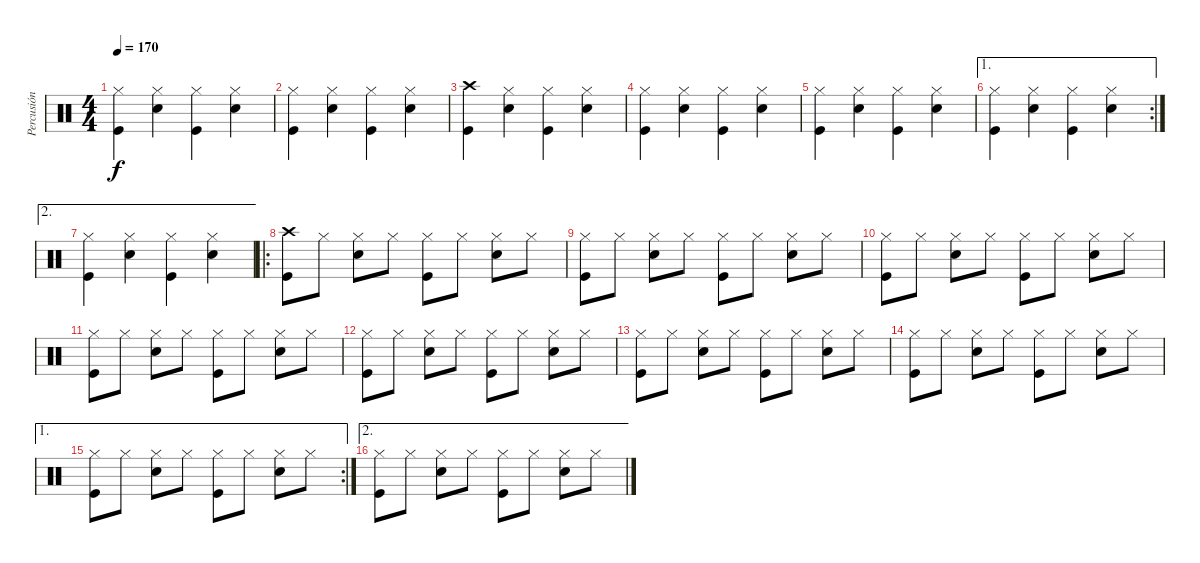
\track ("Percusión" "Percusión") {instrument percussion}
\staff {score}
\articulation defaults
\ts (4 4)
\tempo 170
\clef neutral
\ks c
("Kick (hit)" "Hi-Hat (closed)").4{dy f} ("Snare (hit) 2" "Hi-Hat (closed)").4 ("Kick (hit)" "Hi-Hat (closed)").4 ("Snare (hit) 2" "Hi-Hat (closed)").4 |
("Kick (hit)" "Hi-Hat (closed)").4 ("Snare (hit) 2" "Hi-Hat (closed)").4 ("Kick (hit)" "Hi-Hat (closed)").4 ("Snare (hit) 2" "Hi-Hat (closed)").4 |
("Kick (hit)" "Crash high (hit)").4 ("Snare (hit) 2" "Hi-Hat (closed)").4 ("Kick (hit)" "Hi-Hat (closed)").4 ("Snare (hit) 2" "Hi-Hat (closed)").4 |
("Kick (hit)" "Hi-Hat (closed)").4 ("Snare (hit) 2" "Hi-Hat (closed)").4 ("Kick (hit)" "Hi-Hat (closed)").4 ("Snare (hit) 2" "Hi-Hat (closed)").4 |
("Kick (hit)" "Hi-Hat (closed)").4 ("Snare (hit) 2" "Hi-Hat (closed)").4 ("Kick (hit)" "Hi-Hat (closed)").4 ("Snare (hit) 2" "Hi-Hat (closed)").4 |
\ae 1
\rc 2
("Kick (hit)" "Hi-Hat (closed)").4 ("Snare (hit) 2" "Hi-Hat (closed)").4 ("Kick (hit)" "Hi-Hat (closed)").4 ("Snare (hit) 2" "Hi-Hat (closed)").4 |
\ae 2
("Kick (hit)" "Hi-Hat (closed)").4 ("Snare (hit) 2" "Hi-Hat (closed)").4 ("Kick (hit)" "Hi-Hat (closed)").4 ("Snare (hit) 2" "Hi-Hat (closed)").4 |
\ro
("Kick (hit)" "Crash high (hit)").8 "Hi-Hat (closed)".8 ("Snare (hit) 2" "Hi-Hat (closed)").8 "Hi-Hat (closed)".8 ("Kick (hit)" "Hi-Hat (closed)").8 "Hi-Hat (closed)".8 ("Snare (hit) 2" "Hi-Hat (closed)").8 "Hi-Hat (closed)".8 |
("Kick (hit)" "Hi-Hat (closed)").8 "Hi-Hat (closed)".8 ("Snare (hit) 2" "Hi-Hat (closed)").8 "Hi-Hat (closed)".8 ("Kick (hit)" "Hi-Hat (closed)").8 "Hi-Hat (closed)".8 ("Snare (hit) 2" "Hi-Hat (closed)").8 "Hi-Hat (closed)".8 |
("Kick (hit)" "Hi-Hat (closed)").8 "Hi-Hat (closed)".8 ("Snare (hit) 2" "Hi-Hat (closed)").8 "Hi-Hat (closed)".8 ("Kick (hit)" "Hi-Hat (closed)").8 "Hi-Hat (closed)".8 ("Snare (hit) 2" "Hi-Hat (closed)").8 "Hi-Hat (closed)".8 |
("Kick (hit)" "Hi-Hat (closed)").8 "Hi-Hat (closed)".8 ("Snare (hit) 2" "Hi-Hat (closed)").8 "Hi-Hat (closed)".8 ("Kick (hit)" "Hi-Hat (closed)").8 "Hi-Hat (closed)".8 ("Snare (hit) 2" "Hi-Hat (closed)").8 "Hi-Hat (closed)".8 |
("Kick (hit)" "Hi-Hat (closed)").8 "Hi-Hat (closed)".8 ("Snare (hit) 2" "Hi-Hat (closed)").8 "Hi-Hat (closed)".8 ("Kick (hit)" "Hi-Hat (closed)").8 "Hi-Hat (closed)".8 ("Snare (hit) 2" "Hi-Hat (closed)").8 "Hi-Hat (closed)".8 |
("Kick (hit)" "Hi-Hat (closed)").8 "Hi-Hat (closed)".8 ("Snare (hit) 2" "Hi-Hat (closed)").8 "Hi-Hat (closed)".8 ("Kick (hit)" "Hi-Hat (closed)").8 "Hi-Hat (closed)".8 ("Snare (hit) 2" "Hi-Hat (closed)").8 "Hi-Hat (closed)".8 |
("Kick (hit)" "Hi-Hat (closed)").8 "Hi-Hat (closed)".8 ("Snare (hit) 2" "Hi-Hat (closed)").8 "Hi-Hat (closed)".8 ("Kick (hit)" "Hi-Hat (closed)").8 "Hi-Hat (closed)".8 ("Snare (hit) 2" "Hi-Hat (closed)").8 "Hi-Hat (closed)".8 |
\ae 1
\rc 2
("Kick (hit)" "Hi-Hat (closed)").8 "Hi-Hat (closed)".8 ("Snare (hit) 2" "Hi-Hat (closed)").8 "Hi-Hat (closed)".8 ("Kick (hit)" "Hi-Hat (closed)").8 "Hi-Hat (closed)".8 ("Snare (hit) 2" "Hi-Hat (closed)").8 "Hi-Hat (closed)".8 |
\ae 2
("Kick (hit)" "Hi-Hat (closed)").8 "Hi-Hat (closed)".8 ("Snare (hit) 2" "Hi-Hat (closed)").8 "Hi-Hat (closed)".8 ("Kick (hit)" "Hi-Hat (closed)").8 "Hi-Hat (closed)".8 ("Snare (hit) 2" "Hi-Hat (closed)").8 "Hi-Hat (closed)".8
